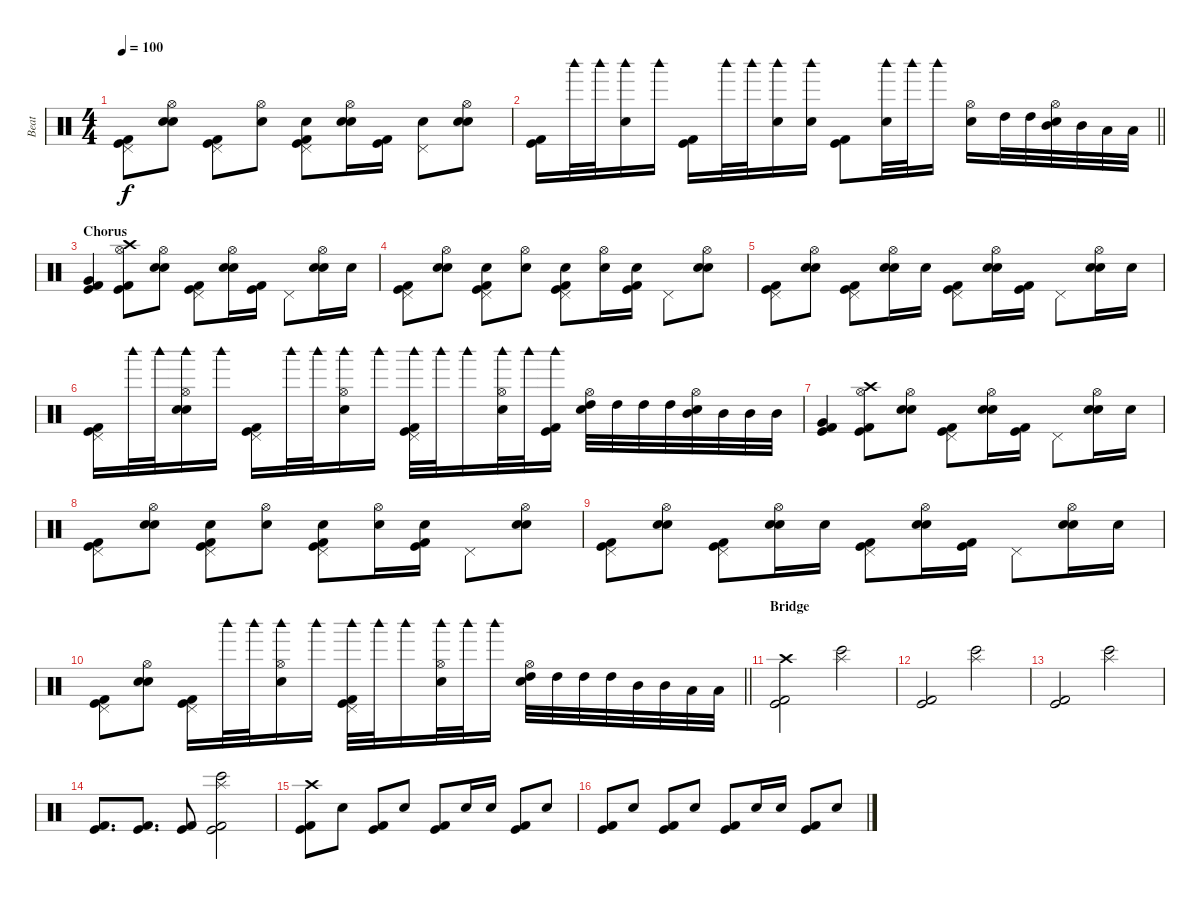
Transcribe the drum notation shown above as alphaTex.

\track ("Beat" "Beat") {instrument percussion}
\staff {score}
\articulation defaults
\ts (4 4)
\tempo 100
\clef neutral
\ks c
("Pedal Hi-Hat (hit)" "Kick (hit)" "Kick (hit) 2").8{dy f} ("Hi-Hat (open)" "Hand Clap (hit)" "Snare (hit) 2").8 ("Pedal Hi-Hat (hit)" "Kick (hit)" "Kick (hit) 2").8 ("Hi-Hat (open)" "Snare (hit) 2").8 ("Pedal Hi-Hat (hit)" "Hand Clap (hit)" "Kick (hit)" "Kick (hit) 2").8 ("Hi-Hat (open)" "Hand Clap (hit)" "Snare (hit) 2").16 ("Kick (hit)" "Kick (hit) 2").16 ("Pedal Hi-Hat (hit)" "Hand Clap (hit)").8 ("Hi-Hat (open)" "Hand Clap (hit)" "Snare (hit) 2").8 |
\barLineRight lightlight
("Kick (hit)" "Kick (hit) 2").16 "Woodblock high (hit)".32 "Woodblock high (hit)".32 ("Woodblock high (hit)" "Hand Clap (hit)").16 "Woodblock high (hit)".16 ("Kick (hit)" "Kick (hit) 2").16 "Woodblock high (hit)".32 "Woodblock high (hit)".32 ("Woodblock high (hit)" "Hand Clap (hit)").16 ("Woodblock high (hit)" "Hand Clap (hit)").16 ("Kick (hit)" "Kick (hit) 2").8 ("Woodblock high (hit)" "Hand Clap (hit)").32 "Woodblock high (hit)".32 "Woodblock high (hit)".16 ("Hi-Hat (open)" "Snare (hit) 2").16 "High Tom (hit)".32 "High Tom (hit)".32 ("Hi-Hat (open)" "Mid Tom (hit)" "Snare (hit) 2").32 "Mid Tom (hit)".32 "Low Tom (hit)".32 "Low Tom (hit)".32 |
\section ("" "Chorus")
("Very Low Tom (hit)" "Kick (hit)" "Kick (hit) 2").4 ("Crash high (hit)" "Hi-Hat (open)" "Kick (hit)" "Kick (hit) 2").8 ("Hi-Hat (open)" "Hand Clap (hit)" "Snare (hit) 2").8 ("Pedal Hi-Hat (hit)" "Kick (hit)" "Kick (hit) 2").8 ("Hi-Hat (open)" "Hand Clap (hit)" "Snare (hit) 2").16 ("Kick (hit)" "Kick (hit) 2").16 "Pedal Hi-Hat (hit)".8 ("Hi-Hat (open)" "Hand Clap (hit)" "Snare (hit) 2").16 "Hand Clap (hit)".16 |
("Pedal Hi-Hat (hit)" "Kick (hit)" "Kick (hit) 2").8 ("Hi-Hat (open)" "Hand Clap (hit)" "Snare (hit) 2").8 ("Pedal Hi-Hat (hit)" "Hand Clap (hit)" "Kick (hit)" "Kick (hit) 2").8 ("Hi-Hat (open)" "Snare (hit) 2").8 ("Pedal Hi-Hat (hit)" "Hand Clap (hit)" "Kick (hit)" "Kick (hit) 2").8 ("Hi-Hat (open)" "Snare (hit) 2").16 ("Hand Clap (hit)" "Kick (hit)" "Kick (hit) 2").16 "Pedal Hi-Hat (hit)".8 ("Hi-Hat (open)" "Hand Clap (hit)" "Snare (hit) 2").8 |
("Pedal Hi-Hat (hit)" "Kick (hit)" "Kick (hit) 2").8 ("Hi-Hat (open)" "Hand Clap (hit)" "Snare (hit) 2").8 ("Pedal Hi-Hat (hit)" "Kick (hit)" "Kick (hit) 2").8 ("Hi-Hat (open)" "Hand Clap (hit)" "Snare (hit) 2").16 "Hand Clap (hit)".16 ("Pedal Hi-Hat (hit)" "Kick (hit)" "Kick (hit) 2").8 ("Hi-Hat (open)" "Hand Clap (hit)" "Snare (hit) 2").16 ("Kick (hit)" "Kick (hit) 2").16 "Pedal Hi-Hat (hit)".8 ("Hi-Hat (open)" "Hand Clap (hit)" "Snare (hit) 2").16 "Hand Clap (hit)".16 |
("Pedal Hi-Hat (hit)" "Kick (hit)" "Kick (hit) 2").16 "Woodblock high (hit)".32 "Woodblock high (hit)".32 ("Hi-Hat (open)" "Woodblock high (hit)" "Snare (hit) 2" "Hand Clap (hit)").16 "Woodblock high (hit)".16 ("Pedal Hi-Hat (hit)" "Kick (hit)" "Kick (hit) 2").16 "Woodblock high (hit)".32 "Woodblock high (hit)".32 ("Hi-Hat (open)" "Woodblock high (hit)" "Snare (hit) 2").16 "Woodblock high (hit)".16 ("Pedal Hi-Hat (hit)" "Woodblock high (hit)" "Kick (hit)" "Kick (hit) 2").32 "Woodblock high (hit)".32 "Woodblock high (hit)".16 ("Hi-Hat (open)" "Woodblock high (hit)" "Snare (hit) 2").32 "Woodblock high (hit)".32 ("Woodblock high (hit)" "Kick (hit)" "Kick (hit) 2").16 ("Hi-Hat (open)" "High Tom (hit)" "Snare (hit) 2").32 "High Tom (hit)".32 "High Tom (hit)".32 "High Tom (hit)".32 ("Hi-Hat (open)" "Mid Tom (hit)" "Snare (hit) 2").32 "Mid Tom (hit)".32 "Mid Tom (hit)".32 "Mid Tom (hit)".32 |
("Very Low Tom (hit)" "Kick (hit)" "Kick (hit) 2").4 ("Crash high (hit)" "Hi-Hat (open)" "Kick (hit)" "Kick (hit) 2").8 ("Hi-Hat (open)" "Hand Clap (hit)" "Snare (hit) 2").8 ("Pedal Hi-Hat (hit)" "Kick (hit)" "Kick (hit) 2").8 ("Hi-Hat (open)" "Hand Clap (hit)" "Snare (hit) 2").16 ("Kick (hit)" "Kick (hit) 2").16 "Pedal Hi-Hat (hit)".8 ("Hi-Hat (open)" "Hand Clap (hit)" "Snare (hit) 2").16 "Hand Clap (hit)".16 |
("Pedal Hi-Hat (hit)" "Kick (hit)" "Kick (hit) 2").8 ("Hi-Hat (open)" "Hand Clap (hit)" "Snare (hit) 2").8 ("Pedal Hi-Hat (hit)" "Hand Clap (hit)" "Kick (hit)" "Kick (hit) 2").8 ("Hi-Hat (open)" "Snare (hit) 2").8 ("Pedal Hi-Hat (hit)" "Hand Clap (hit)" "Kick (hit)" "Kick (hit) 2").8 ("Hi-Hat (open)" "Snare (hit) 2").16 ("Hand Clap (hit)" "Kick (hit)" "Kick (hit) 2").16 "Pedal Hi-Hat (hit)".8 ("Hi-Hat (open)" "Hand Clap (hit)" "Snare (hit) 2").8 |
("Pedal Hi-Hat (hit)" "Kick (hit)" "Kick (hit) 2").8 ("Hi-Hat (open)" "Hand Clap (hit)" "Snare (hit) 2").8 ("Pedal Hi-Hat (hit)" "Kick (hit)" "Kick (hit) 2").8 ("Hi-Hat (open)" "Hand Clap (hit)" "Snare (hit) 2").16 "Hand Clap (hit)".16 ("Pedal Hi-Hat (hit)" "Kick (hit)" "Kick (hit) 2").8 ("Hi-Hat (open)" "Hand Clap (hit)" "Snare (hit) 2").16 ("Kick (hit)" "Kick (hit) 2").16 "Pedal Hi-Hat (hit)".8 ("Hi-Hat (open)" "Hand Clap (hit)" "Snare (hit) 2").16 "Hand Clap (hit)".16 |
\barLineRight lightlight
("Pedal Hi-Hat (hit)" "Kick (hit)" "Kick (hit) 2").8 ("Hi-Hat (open)" "Hand Clap (hit)" "Snare (hit) 2").8 ("Pedal Hi-Hat (hit)" "Kick (hit)" "Kick (hit) 2").16 "Woodblock high (hit)".32 "Woodblock high (hit)".32 ("Hi-Hat (open)" "Woodblock high (hit)" "Snare (hit) 2").16 "Woodblock high (hit)".16 ("Pedal Hi-Hat (hit)" "Woodblock high (hit)" "Kick (hit)" "Kick (hit) 2").32 "Woodblock high (hit)".32 "Woodblock high (hit)".16 ("Hi-Hat (open)" "Woodblock high (hit)" "Snare (hit) 2").32 "Woodblock high (hit)".32 "Woodblock high (hit)".16 ("Hi-Hat (open)" "High Tom (hit)" "Snare (hit) 2").32 "High Tom (hit)".32 "High Tom (hit)".32 "High Tom (hit)".32 "Mid Tom (hit)".32 "Mid Tom (hit)".32 "Low Tom (hit)".32 "Low Tom (hit)".32 |
\section ("" "Bridge")
("Crash high (hit)" "Kick (hit)" "Kick (hit) 2").2 ("Splash (hit)" "Bongo High (hit)").2 |
("Kick (hit)" "Kick (hit) 2").2 ("Splash (hit)" "Bongo High (hit)").2 |
("Kick (hit)" "Kick (hit) 2").2 ("Splash (hit)" "Bongo High (hit)").2 |
("Kick (hit)" "Kick (hit) 2").8{d} ("Kick (hit)" "Kick (hit) 2").8{d} ("Kick (hit)" "Kick (hit) 2").8 ("Splash (hit)" "Bongo High (hit)" "Kick (hit)" "Kick (hit) 2").2 |
("Crash high (hit)" "Kick (hit)" "Kick (hit) 2").8 "Hand Clap (hit)".8 ("Kick (hit)" "Kick (hit) 2").8 "Hand Clap (hit)".8 ("Kick (hit)" "Kick (hit) 2").8 "Hand Clap (hit)".16 "Hand Clap (hit)".16 ("Kick (hit)" "Kick (hit) 2").8 "Hand Clap (hit)".8 |
("Kick (hit)" "Kick (hit) 2").8 "Hand Clap (hit)".8 ("Kick (hit)" "Kick (hit) 2").8 "Hand Clap (hit)".8 ("Kick (hit)" "Kick (hit) 2").8 "Hand Clap (hit)".16 "Hand Clap (hit)".16 ("Kick (hit)" "Kick (hit) 2").8 "Hand Clap (hit)".8
